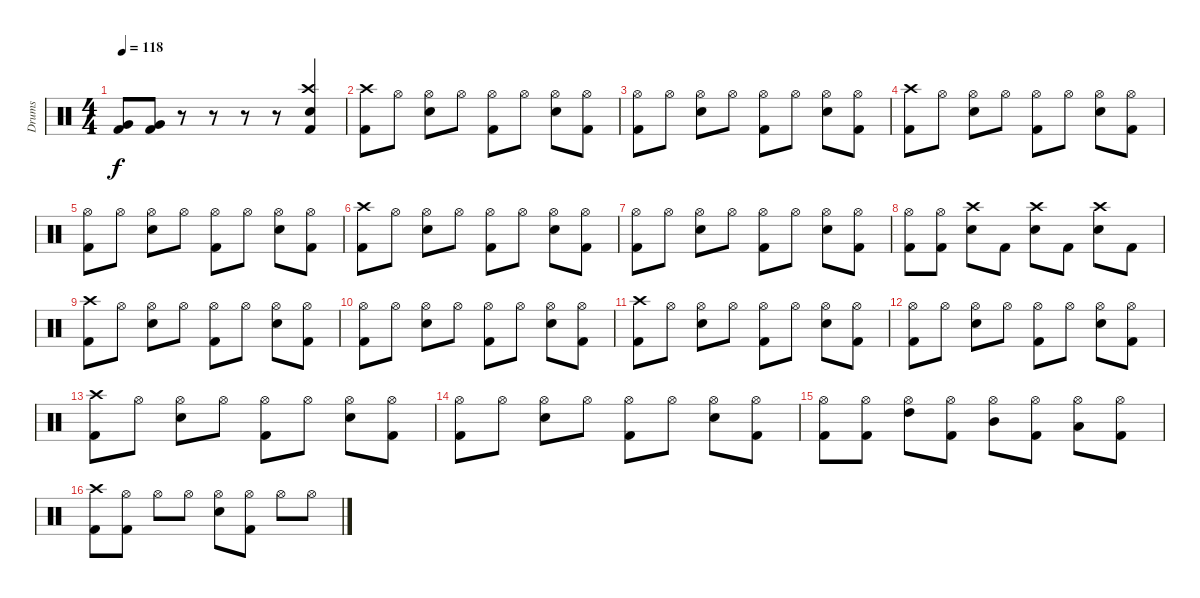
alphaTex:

\track ("Drums" "Drums") {instrument percussion}
\staff {score}
\articulation defaults
\ts (4 4)
\tempo 118
\clef neutral
\ks c
("Very Low Tom (hit)" "Kick (hit) 2").8{dy f} ("Very Low Tom (hit)" "Kick (hit) 2").8 r.8 r.8 r.8 r.8 ("Crash high (hit)" "Snare (hit) 2" "Kick (hit) 2").4 |
("Crash high (hit)" "Kick (hit) 2").8 "Hi-Hat (open)".8 ("Hi-Hat (open)" "Snare (hit) 2").8 "Hi-Hat (open)".8 ("Hi-Hat (open)" "Kick (hit) 2").8 "Hi-Hat (open)".8 ("Hi-Hat (open)" "Snare (hit) 2").8 ("Hi-Hat (open)" "Kick (hit) 2").8 |
("Hi-Hat (open)" "Kick (hit) 2").8 "Hi-Hat (open)".8 ("Hi-Hat (open)" "Snare (hit) 2").8 "Hi-Hat (open)".8 ("Hi-Hat (open)" "Kick (hit) 2").8 "Hi-Hat (open)".8 ("Hi-Hat (open)" "Snare (hit) 2").8 ("Hi-Hat (open)" "Kick (hit) 2").8 |
("Crash high (hit)" "Kick (hit) 2").8 "Hi-Hat (open)".8 ("Hi-Hat (open)" "Snare (hit) 2").8 "Hi-Hat (open)".8 ("Hi-Hat (open)" "Kick (hit) 2").8 "Hi-Hat (open)".8 ("Hi-Hat (open)" "Snare (hit) 2").8 ("Hi-Hat (open)" "Kick (hit) 2").8 |
("Hi-Hat (open)" "Kick (hit) 2").8 "Hi-Hat (open)".8 ("Hi-Hat (open)" "Snare (hit) 2").8 "Hi-Hat (open)".8 ("Hi-Hat (open)" "Kick (hit) 2").8 "Hi-Hat (open)".8 ("Hi-Hat (open)" "Snare (hit) 2").8 ("Hi-Hat (open)" "Kick (hit) 2").8 |
("Crash high (hit)" "Kick (hit) 2").8 "Hi-Hat (open)".8 ("Hi-Hat (open)" "Snare (hit) 2").8 "Hi-Hat (open)".8 ("Hi-Hat (open)" "Kick (hit) 2").8 "Hi-Hat (open)".8 ("Hi-Hat (open)" "Snare (hit) 2").8 ("Hi-Hat (open)" "Kick (hit) 2").8 |
("Hi-Hat (open)" "Kick (hit) 2").8 "Hi-Hat (open)".8 ("Hi-Hat (open)" "Snare (hit) 2").8 "Hi-Hat (open)".8 ("Hi-Hat (open)" "Kick (hit) 2").8 "Hi-Hat (open)".8 ("Hi-Hat (open)" "Snare (hit) 2").8 ("Hi-Hat (open)" "Kick (hit) 2").8 |
("Hi-Hat (open)" "Kick (hit) 2").8 ("Hi-Hat (open)" "Kick (hit) 2").8 ("Crash high (hit)" "Snare (hit) 2").8 "Kick (hit) 2".8 ("Crash high (hit)" "Snare (hit) 2").8 "Kick (hit) 2".8 ("Crash high (hit)" "Snare (hit) 2").8 "Kick (hit) 2".8 |
("Crash high (hit)" "Kick (hit) 2").8 "Hi-Hat (open)".8 ("Hi-Hat (open)" "Snare (hit) 2").8 "Hi-Hat (open)".8 ("Hi-Hat (open)" "Kick (hit) 2").8 "Hi-Hat (open)".8 ("Hi-Hat (open)" "Snare (hit) 2").8 ("Hi-Hat (open)" "Kick (hit) 2").8 |
("Hi-Hat (open)" "Kick (hit) 2").8 "Hi-Hat (open)".8 ("Hi-Hat (open)" "Snare (hit) 2").8 "Hi-Hat (open)".8 ("Hi-Hat (open)" "Kick (hit) 2").8 "Hi-Hat (open)".8 ("Hi-Hat (open)" "Snare (hit) 2").8 ("Hi-Hat (open)" "Kick (hit) 2").8 |
("Crash high (hit)" "Kick (hit) 2").8 "Hi-Hat (open)".8 ("Hi-Hat (open)" "Snare (hit) 2").8 "Hi-Hat (open)".8 ("Hi-Hat (open)" "Kick (hit) 2").8 "Hi-Hat (open)".8 ("Hi-Hat (open)" "Snare (hit) 2").8 ("Hi-Hat (open)" "Kick (hit) 2").8 |
("Hi-Hat (open)" "Kick (hit) 2").8 "Hi-Hat (open)".8 ("Hi-Hat (open)" "Snare (hit) 2").8 "Hi-Hat (open)".8 ("Hi-Hat (open)" "Kick (hit) 2").8 "Hi-Hat (open)".8 ("Hi-Hat (open)" "Snare (hit) 2").8 ("Hi-Hat (open)" "Kick (hit) 2").8 |
("Crash high (hit)" "Kick (hit) 2").8 "Hi-Hat (open)".8 ("Hi-Hat (open)" "Snare (hit) 2").8 "Hi-Hat (open)".8 ("Hi-Hat (open)" "Kick (hit) 2").8 "Hi-Hat (open)".8 ("Hi-Hat (open)" "Snare (hit) 2").8 ("Hi-Hat (open)" "Kick (hit) 2").8 |
("Hi-Hat (open)" "Kick (hit) 2").8 "Hi-Hat (open)".8 ("Hi-Hat (open)" "Snare (hit) 2").8 "Hi-Hat (open)".8 ("Hi-Hat (open)" "Kick (hit) 2").8 "Hi-Hat (open)".8 ("Hi-Hat (open)" "Snare (hit) 2").8 ("Hi-Hat (open)" "Kick (hit) 2").8 |
("Hi-Hat (open)" "Kick (hit) 2").8 ("Hi-Hat (open)" "Kick (hit) 2").8 ("Hi-Hat (open)" "High Tom (hit)").8 ("Hi-Hat (open)" "Kick (hit) 2").8 ("Hi-Hat (open)" "Mid Tom (hit)").8 ("Hi-Hat (open)" "Kick (hit) 2").8 ("Hi-Hat (open)" "Low Tom (hit)").8 ("Hi-Hat (open)" "Kick (hit) 2").8 |
("Crash high (hit)" "Kick (hit) 2").8 ("Hi-Hat (open)" "Kick (hit) 2").8 "Hi-Hat (open)".8 "Hi-Hat (open)".8 ("Hi-Hat (open)" "Snare (hit) 2").8 ("Hi-Hat (open)" "Kick (hit) 2").8 "Hi-Hat (open)".8 "Hi-Hat (open)".8
